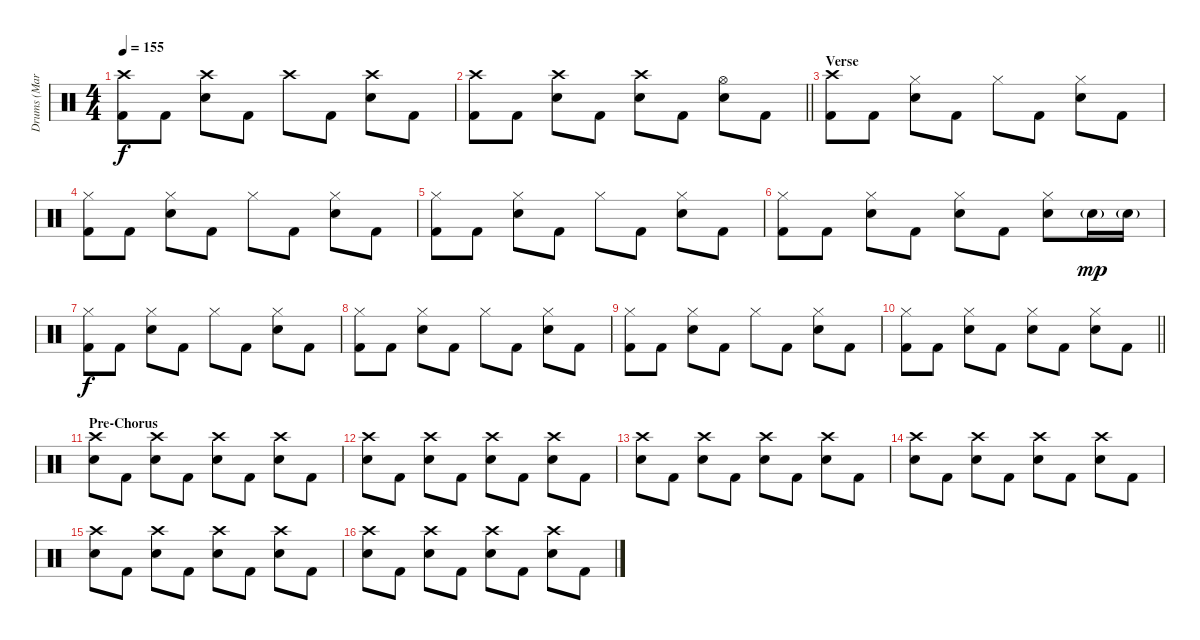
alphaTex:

\track ("Drums (Mark)" "Drums (Mar") {instrument percussion}
\staff {score}
\articulation defaults
\ts (4 4)
\tempo 155
\clef neutral
\ks c
("Crash high (hit)" "Kick (hit) 2").8{dy f} "Kick (hit) 2".8 ("Crash high (hit)" "Snare (hit) 2").8 "Kick (hit) 2".8 "Crash high (hit)".8 "Kick (hit) 2".8 ("Crash high (hit)" "Snare (hit) 2").8 "Kick (hit) 2".8 |
\barLineRight lightlight
("Crash high (hit)" "Kick (hit) 2").8 "Kick (hit) 2".8 ("Crash high (hit)" "Snare (hit) 2").8 "Kick (hit) 2".8 ("Crash high (hit)" "Snare (hit) 2").8 "Kick (hit) 2".8 ("Hi-Hat (open)" "Snare (hit) 2").8 "Kick (hit) 2".8 |
\section ("" "Verse")
("Crash high (hit)" "Kick (hit) 2").8 "Kick (hit) 2".8 ("Hi-Hat (closed)" "Snare (hit) 2").8 "Kick (hit) 2".8 "Hi-Hat (closed)".8 "Kick (hit) 2".8 ("Hi-Hat (closed)" "Snare (hit) 2").8 "Kick (hit) 2".8 |
("Hi-Hat (closed)" "Kick (hit) 2").8 "Kick (hit) 2".8 ("Hi-Hat (closed)" "Snare (hit) 2").8 "Kick (hit) 2".8 "Hi-Hat (closed)".8 "Kick (hit) 2".8 ("Hi-Hat (closed)" "Snare (hit) 2").8 "Kick (hit) 2".8 |
("Hi-Hat (closed)" "Kick (hit) 2").8 "Kick (hit) 2".8 ("Hi-Hat (closed)" "Snare (hit) 2").8 "Kick (hit) 2".8 "Hi-Hat (closed)".8 "Kick (hit) 2".8 ("Hi-Hat (closed)" "Snare (hit) 2").8 "Kick (hit) 2".8 |
("Hi-Hat (closed)" "Kick (hit) 2").8 "Kick (hit) 2".8 ("Hi-Hat (closed)" "Snare (hit) 2").8 "Kick (hit) 2".8 ("Hi-Hat (closed)" "Snare (hit) 2").8 "Kick (hit) 2".8 ("Hi-Hat (closed)" "Snare (hit) 2").8 "Snare (hit) 2"{g}.16{dy mp} "Snare (hit) 2"{g}.16 |
("Hi-Hat (closed)" "Kick (hit) 2").8{dy f} "Kick (hit) 2".8 ("Hi-Hat (closed)" "Snare (hit) 2").8 "Kick (hit) 2".8 "Hi-Hat (closed)".8 "Kick (hit) 2".8 ("Hi-Hat (closed)" "Snare (hit) 2").8 "Kick (hit) 2".8 |
("Hi-Hat (closed)" "Kick (hit) 2").8 "Kick (hit) 2".8 ("Hi-Hat (closed)" "Snare (hit) 2").8 "Kick (hit) 2".8 "Hi-Hat (closed)".8 "Kick (hit) 2".8 ("Hi-Hat (closed)" "Snare (hit) 2").8 "Kick (hit) 2".8 |
("Hi-Hat (closed)" "Kick (hit) 2").8 "Kick (hit) 2".8 ("Hi-Hat (closed)" "Snare (hit) 2").8 "Kick (hit) 2".8 "Hi-Hat (closed)".8 "Kick (hit) 2".8 ("Hi-Hat (closed)" "Snare (hit) 2").8 "Kick (hit) 2".8 |
\barLineRight lightlight
("Hi-Hat (closed)" "Kick (hit) 2").8 "Kick (hit) 2".8 ("Hi-Hat (closed)" "Snare (hit) 2").8 "Kick (hit) 2".8 ("Hi-Hat (closed)" "Snare (hit) 2").8 "Kick (hit) 2".8 ("Hi-Hat (closed)" "Snare (hit) 2").8 "Kick (hit) 2".8 |
\section ("" "Pre-Chorus")
("Crash high (hit)" "Snare (hit) 2").8 "Kick (hit) 2".8 ("Crash high (hit)" "Snare (hit) 2").8 "Kick (hit) 2".8 ("Crash high (hit)" "Snare (hit) 2").8 "Kick (hit) 2".8 ("Crash high (hit)" "Snare (hit) 2").8 "Kick (hit) 2".8 |
("Crash high (hit)" "Snare (hit) 2").8 "Kick (hit) 2".8 ("Crash high (hit)" "Snare (hit) 2").8 "Kick (hit) 2".8 ("Crash high (hit)" "Snare (hit) 2").8 "Kick (hit) 2".8 ("Crash high (hit)" "Snare (hit) 2").8 "Kick (hit) 2".8 |
("Crash high (hit)" "Snare (hit) 2").8 "Kick (hit) 2".8 ("Crash high (hit)" "Snare (hit) 2").8 "Kick (hit) 2".8 ("Crash high (hit)" "Snare (hit) 2").8 "Kick (hit) 2".8 ("Crash high (hit)" "Snare (hit) 2").8 "Kick (hit) 2".8 |
("Crash high (hit)" "Snare (hit) 2").8 "Kick (hit) 2".8 ("Crash high (hit)" "Snare (hit) 2").8 "Kick (hit) 2".8 ("Crash high (hit)" "Snare (hit) 2").8 "Kick (hit) 2".8 ("Crash high (hit)" "Snare (hit) 2").8 "Kick (hit) 2".8 |
("Crash high (hit)" "Snare (hit) 2").8 "Kick (hit) 2".8 ("Crash high (hit)" "Snare (hit) 2").8 "Kick (hit) 2".8 ("Crash high (hit)" "Snare (hit) 2").8 "Kick (hit) 2".8 ("Crash high (hit)" "Snare (hit) 2").8 "Kick (hit) 2".8 |
("Crash high (hit)" "Snare (hit) 2").8 "Kick (hit) 2".8 ("Crash high (hit)" "Snare (hit) 2").8 "Kick (hit) 2".8 ("Crash high (hit)" "Snare (hit) 2").8 "Kick (hit) 2".8 ("Crash high (hit)" "Snare (hit) 2").8 "Kick (hit) 2".8
